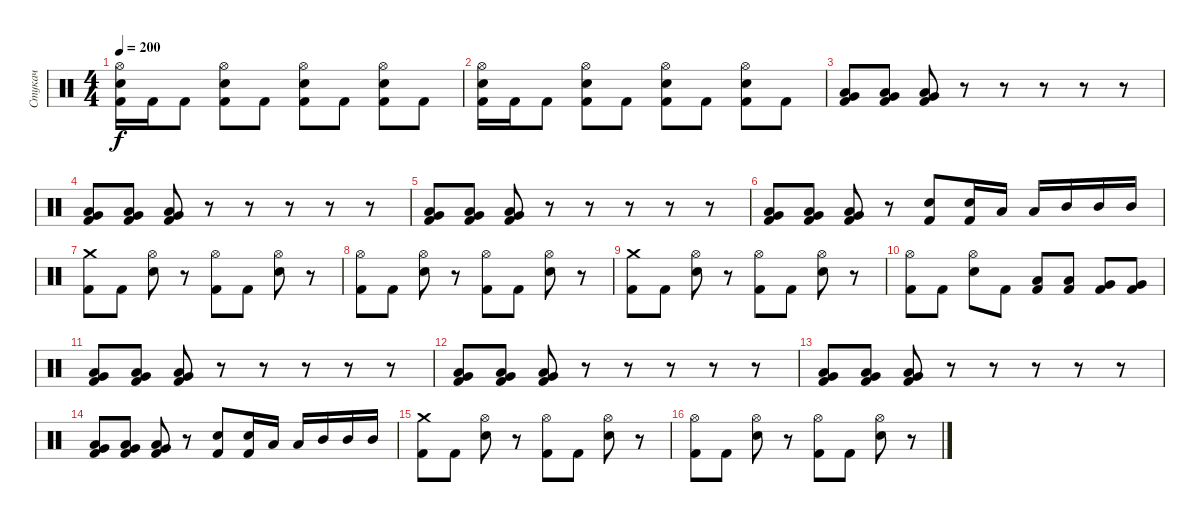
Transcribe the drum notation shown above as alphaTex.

\track ("Стукач" "Стукач") {instrument percussion}
\staff {score}
\articulation defaults
\ts (4 4)
\tempo 200
\clef neutral
\ks c
("Hi-Hat (open)" "Electric Snare (hit)" "Kick (hit) 2").16{dy f} "Kick (hit) 2".16 "Kick (hit) 2".8 ("Hi-Hat (open)" "Electric Snare (hit)" "Kick (hit) 2").8 "Kick (hit) 2".8 ("Hi-Hat (open)" "Electric Snare (hit)" "Kick (hit) 2").8 "Kick (hit) 2".8 ("Hi-Hat (open)" "Electric Snare (hit)" "Kick (hit) 2").8 "Kick (hit) 2".8 |
("Hi-Hat (open)" "Electric Snare (hit)" "Kick (hit) 2").16 "Kick (hit) 2".16 "Kick (hit) 2".8 ("Hi-Hat (open)" "Electric Snare (hit)" "Kick (hit) 2").8 "Kick (hit) 2".8 ("Hi-Hat (open)" "Electric Snare (hit)" "Kick (hit) 2").8 "Kick (hit) 2".8 ("Hi-Hat (open)" "Electric Snare (hit)" "Kick (hit) 2").8 "Kick (hit) 2".8 |
("Very Low Tom (hit)" "Low Tom (hit)" "Kick (hit) 2").8 ("Very Low Tom (hit)" "Low Tom (hit)" "Kick (hit) 2").8 ("Very Low Tom (hit)" "Low Tom (hit)" "Kick (hit) 2").8 r.8 r.8 r.8 r.8 r.8 |
("Very Low Tom (hit)" "Low Tom (hit)" "Kick (hit) 2").8 ("Very Low Tom (hit)" "Low Tom (hit)" "Kick (hit) 2").8 ("Very Low Tom (hit)" "Low Tom (hit)" "Kick (hit) 2").8 r.8 r.8 r.8 r.8 r.8 |
("Very Low Tom (hit)" "Low Tom (hit)" "Kick (hit) 2").8 ("Very Low Tom (hit)" "Low Tom (hit)" "Kick (hit) 2").8 ("Very Low Tom (hit)" "Low Tom (hit)" "Kick (hit) 2").8 r.8 r.8 r.8 r.8 r.8 |
("Very Low Tom (hit)" "Low Tom (hit)" "Kick (hit) 2").8 ("Very Low Tom (hit)" "Low Tom (hit)" "Kick (hit) 2").8 ("Very Low Tom (hit)" "Low Tom (hit)" "Kick (hit) 2").8 r.8 ("Electric Snare (hit)" "Kick (hit) 2").8 ("Electric Snare (hit)" "Kick (hit) 2").16 "Low Tom (hit)".16 "Low Tom (hit)".16 "Mid Tom (hit)".16 "Mid Tom (hit)".16 "Mid Tom (hit)".16 |
("Crash medium (hit)" "Kick (hit) 2").8 "Kick (hit) 2".8 ("Hi-Hat (open)" "Electric Snare (hit)").8 r.8 ("Hi-Hat (open)" "Kick (hit) 2").8 "Kick (hit) 2".8 ("Hi-Hat (open)" "Electric Snare (hit)").8 r.8 |
("Hi-Hat (open)" "Kick (hit) 2").8 "Kick (hit) 2".8 ("Hi-Hat (open)" "Electric Snare (hit)").8 r.8 ("Hi-Hat (open)" "Kick (hit) 2").8 "Kick (hit) 2".8 ("Hi-Hat (open)" "Electric Snare (hit)").8 r.8 |
("Crash medium (hit)" "Kick (hit) 2").8 "Kick (hit) 2".8 ("Hi-Hat (open)" "Electric Snare (hit)").8 r.8 ("Hi-Hat (open)" "Kick (hit) 2").8 "Kick (hit) 2".8 ("Hi-Hat (open)" "Electric Snare (hit)").8 r.8 |
("Hi-Hat (open)" "Kick (hit) 2").8 "Kick (hit) 2".8 ("Hi-Hat (open)" "Electric Snare (hit)").8 "Kick (hit) 2".8 ("Low Tom (hit)" "Kick (hit) 2").8 ("Low Tom (hit)" "Kick (hit) 2").8 ("Very Low Tom (hit)" "Kick (hit) 2").8 ("Very Low Tom (hit)" "Kick (hit) 2").8 |
("Very Low Tom (hit)" "Low Tom (hit)" "Kick (hit) 2").8 ("Very Low Tom (hit)" "Low Tom (hit)" "Kick (hit) 2").8 ("Very Low Tom (hit)" "Low Tom (hit)" "Kick (hit) 2").8 r.8 r.8 r.8 r.8 r.8 |
("Very Low Tom (hit)" "Low Tom (hit)" "Kick (hit) 2").8 ("Very Low Tom (hit)" "Low Tom (hit)" "Kick (hit) 2").8 ("Very Low Tom (hit)" "Low Tom (hit)" "Kick (hit) 2").8 r.8 r.8 r.8 r.8 r.8 |
("Very Low Tom (hit)" "Low Tom (hit)" "Kick (hit) 2").8 ("Very Low Tom (hit)" "Low Tom (hit)" "Kick (hit) 2").8 ("Very Low Tom (hit)" "Low Tom (hit)" "Kick (hit) 2").8 r.8 r.8 r.8 r.8 r.8 |
("Very Low Tom (hit)" "Low Tom (hit)" "Kick (hit) 2").8 ("Very Low Tom (hit)" "Low Tom (hit)" "Kick (hit) 2").8 ("Very Low Tom (hit)" "Low Tom (hit)" "Kick (hit) 2").8 r.8 ("Electric Snare (hit)" "Kick (hit) 2").8 ("Electric Snare (hit)" "Kick (hit) 2").16 "Low Tom (hit)".16 "Low Tom (hit)".16 "Mid Tom (hit)".16 "Mid Tom (hit)".16 "Mid Tom (hit)".16 |
("Crash medium (hit)" "Kick (hit) 2").8 "Kick (hit) 2".8 ("Hi-Hat (open)" "Electric Snare (hit)").8 r.8 ("Hi-Hat (open)" "Kick (hit) 2").8 "Kick (hit) 2".8 ("Hi-Hat (open)" "Electric Snare (hit)").8 r.8 |
("Hi-Hat (open)" "Kick (hit) 2").8 "Kick (hit) 2".8 ("Hi-Hat (open)" "Electric Snare (hit)").8 r.8 ("Hi-Hat (open)" "Kick (hit) 2").8 "Kick (hit) 2".8 ("Hi-Hat (open)" "Electric Snare (hit)").8 r.8
